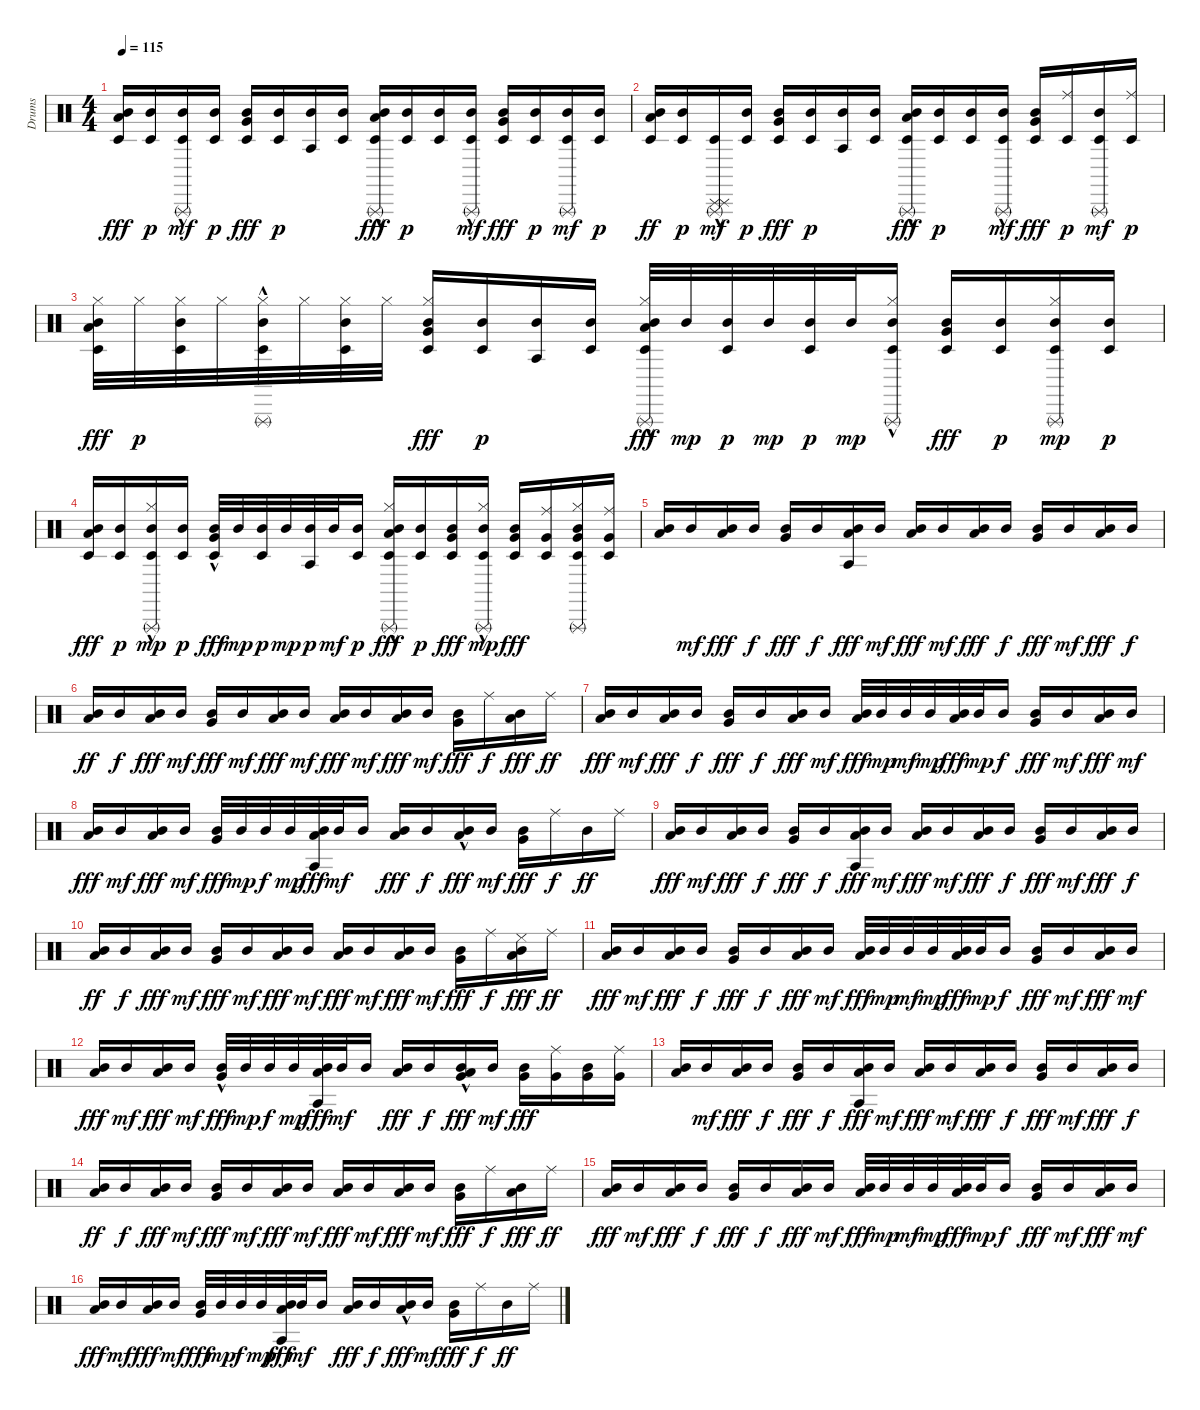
\track ("Drums" "Drums") {instrument percussion}
\staff {score}
\articulation defaults
\ts (4 4)
\tempo 115
\clef neutral
\ks c
("Mid Tom (hit)" "Timbale low (hit)" "Low Floor Tom (hit)").16{dy fff} ("Mid Tom (hit)" "Timbale low (hit)").16{dy p} ("Mid Tom (hit)" "Timbale low (hit)" "Triangle (rnute)"{hac}).16{dy mf} ("Mid Tom (hit)" "Timbale low (hit)").16{dy p} ("Mid Tom (hit)" "Timbale low (hit)" "Very Low Tom (hit)").16{dy fff} ("Mid Tom (hit)" "Timbale low (hit)").16{dy p} ("Mid Tom (hit)" "Agogo tow (hit)").16 ("Mid Tom (hit)" "Timbale low (hit)").16 ("Mid Tom (hit)" "Timbale low (hit)" "Triangle (rnute)"{hac} "Low Floor Tom (hit)").16{dy fff} ("Mid Tom (hit)" "Timbale low (hit)").16{dy p} ("Mid Tom (hit)" "Timbale low (hit)").16 ("Mid Tom (hit)" "Timbale low (hit)" "Triangle (rnute)"{hac}).16{dy mf} ("Mid Tom (hit)" "Timbale low (hit)" "Very Low Tom (hit)").16{dy fff} ("Mid Tom (hit)" "Timbale low (hit)").16{dy p} ("Mid Tom (hit)" "Timbale low (hit)" "Triangle (rnute)").16{dy mf} ("Mid Tom (hit)" "Timbale low (hit)").16{dy p} |
("Mid Tom (hit)" "Timbale low (hit)" "Low Floor Tom (hit)").16{dy ff} ("Mid Tom (hit)" "Timbale low (hit)").16{dy p} ("Piatti (hand)" "Piatti (hand)" "Timbale low (hit)" "Triangle (rnute)"{hac}).16{dy mf} ("Mid Tom (hit)" "Timbale low (hit)").16{dy p} ("Mid Tom (hit)" "Timbale low (hit)" "Very Low Tom (hit)").16{dy fff} ("Mid Tom (hit)" "Timbale low (hit)").16{dy p} ("Mid Tom (hit)" "Agogo tow (hit)").16 ("Mid Tom (hit)" "Timbale low (hit)").16 ("Mid Tom (hit)" "Timbale low (hit)" "Triangle (rnute)"{hac} "Low Floor Tom (hit)").16{dy fff} ("Mid Tom (hit)" "Timbale low (hit)").16{dy p} ("Mid Tom (hit)" "Timbale low (hit)").16 ("Mid Tom (hit)" "Timbale low (hit)" "Triangle (rnute)"{hac}).16{dy mf} ("Mid Tom (hit)" "Timbale low (hit)" "Very Low Tom (hit)").16{dy fff} ("Ride (middle)" "Timbale low (hit)").16{dy p} ("Mid Tom (hit)" "Timbale low (hit)" "Triangle (rnute)").16{dy mf} ("Ride (middle)" "Timbale low (hit)").16{dy p} |
("Mid Tom (hit)" "Timbale low (hit)" "Hi-Hat (closed)" "Low Floor Tom (hit)").32{dy fff} "Hi-Hat (closed)".32{dy p} ("Mid Tom (hit)" "Timbale low (hit)" "Hi-Hat (closed)").32 "Hi-Hat (closed)".32 ("Mid Tom (hit)" "Timbale low (hit)" "Triangle (rnute)"{hac} "Hi-Hat (closed)").32 "Hi-Hat (closed)".32 ("Mid Tom (hit)" "Timbale low (hit)" "Hi-Hat (closed)").32 "Hi-Hat (closed)".32 ("Mid Tom (hit)" "Timbale low (hit)" "Hi-Hat (closed)" "Very Low Tom (hit)").16{dy fff} ("Mid Tom (hit)" "Timbale low (hit)").16{dy p} ("Mid Tom (hit)" "Agogo tow (hit)").16 ("Mid Tom (hit)" "Timbale low (hit)").16 ("Mid Tom (hit)" "Timbale low (hit)" "Triangle (rnute)"{hac} "Hi-Hat (closed)"{hac} "Low Floor Tom (hit)").32{dy fff} "Mid Tom (hit)".32{dy mp} ("Mid Tom (hit)" "Timbale low (hit)").32{dy p} "Mid Tom (hit)".32{dy mp} ("Mid Tom (hit)" "Timbale low (hit)").32{dy p} "Mid Tom (hit)".32{dy mp} ("Mid Tom (hit)" "Timbale low (hit)" "Triangle (rnute)"{hac} "Hi-Hat (closed)"{hac}).16 ("Mid Tom (hit)" "Timbale low (hit)" "Very Low Tom (hit)").16{dy fff} ("Mid Tom (hit)" "Timbale low (hit)").16{dy p} ("Mid Tom (hit)" "Timbale low (hit)" "Triangle (rnute)" "Hi-Hat (closed)").16{dy mp} ("Mid Tom (hit)" "Timbale low (hit)").16{dy p} |
("Mid Tom (hit)" "Timbale low (hit)" "Low Floor Tom (hit)").16{dy fff} ("Mid Tom (hit)" "Timbale low (hit)").16{dy p} ("Mid Tom (hit)" "Timbale low (hit)" "Triangle (rnute)"{hac} "Hi-Hat (closed)"{hac}).16{dy mp} ("Mid Tom (hit)" "Timbale low (hit)").16{dy p} ("Mid Tom (hit)" "Timbale low (hit)" "Very Low Tom (hit)"{hac}).32{dy fff} "Mid Tom (hit)".32{dy mp} ("Mid Tom (hit)" "Timbale low (hit)").32{dy p} "Mid Tom (hit)".32{dy mp} ("Mid Tom (hit)" "Agogo tow (hit)").32{dy p} "Mid Tom (hit)".32{dy mf} ("Mid Tom (hit)" "Timbale low (hit)").16{dy p} ("Mid Tom (hit)" "Timbale low (hit)" "Triangle (rnute)"{hac} "Hi-Hat (closed)"{hac} "Low Floor Tom (hit)").16{dy fff} ("Mid Tom (hit)" "Timbale low (hit)").16{dy p} ("Mid Tom (hit)" "Timbale low (hit)" "Very Low Tom (hit)").16{dy fff} ("Mid Tom (hit)" "Timbale low (hit)" "Triangle (rnute)"{hac} "Hi-Hat (closed)"{hac}).16{dy mp} ("Mid Tom (hit)" "Timbale low (hit)" "Very Low Tom (hit)").16{dy fff} ("Ride (middle)" "Timbale low (hit)" "Very Low Tom (hit)").16 ("Mid Tom (hit)" "Timbale low (hit)" "Triangle (rnute)" "Hi-Hat (closed)" "Very Low Tom (hit)").16 ("Ride (middle)" "Timbale low (hit)" "Very Low Tom (hit)").16 |
("Mid Tom (hit)" "Low Floor Tom (hit)").16 "Mid Tom (hit)".16{dy mf} ("Mid Tom (hit)" "Low Floor Tom (hit)").16{dy fff} "Mid Tom (hit)".16{dy f} ("Mid Tom (hit)" "Very Low Tom (hit)").16{dy fff} "Mid Tom (hit)".16{dy f} ("Mid Tom (hit)" "Agogo tow (hit)" "Low Floor Tom (hit)").16{dy fff} "Mid Tom (hit)".16{dy mf} ("Mid Tom (hit)" "Low Floor Tom (hit)").16{dy fff} "Mid Tom (hit)".16{dy mf} ("Mid Tom (hit)" "Low Floor Tom (hit)").16{dy fff} "Mid Tom (hit)".16{dy f} ("Mid Tom (hit)" "Very Low Tom (hit)").16{dy fff} "Mid Tom (hit)".16{dy mf} ("Mid Tom (hit)" "Low Floor Tom (hit)").16{dy fff} "Mid Tom (hit)".16{dy f} |
("Mid Tom (hit)" "Low Floor Tom (hit)").16{dy ff} "Mid Tom (hit)".16{dy f} ("Mid Tom (hit)" "Low Floor Tom (hit)").16{dy fff} "Mid Tom (hit)".16{dy mf} ("Mid Tom (hit)" "Very Low Tom (hit)").16{dy fff} "Mid Tom (hit)".16{dy mf} ("Mid Tom (hit)" "Low Floor Tom (hit)").16{dy fff} "Mid Tom (hit)".16{dy mf} ("Mid Tom (hit)" "Low Floor Tom (hit)").16{dy fff} "Mid Tom (hit)".16{dy mf} ("Mid Tom (hit)" "Low Floor Tom (hit)").16{dy fff} "Mid Tom (hit)".16{dy mf} ("Mid Tom (hit)" "Very Low Tom (hit)").16{dy fff} "Ride (middle)".16{dy f} ("Mid Tom (hit)" "Low Floor Tom (hit)").16{dy fff} "Ride (middle)".16{dy ff} |
("Mid Tom (hit)" "Low Floor Tom (hit)").16{dy fff} "Mid Tom (hit)".16{dy mf} ("Mid Tom (hit)" "Low Floor Tom (hit)").16{dy fff} "Mid Tom (hit)".16{dy f} ("Mid Tom (hit)" "Very Low Tom (hit)").16{dy fff} "Mid Tom (hit)".16{dy f} ("Mid Tom (hit)" "Low Floor Tom (hit)").16{dy fff} "Mid Tom (hit)".16{dy mf} ("Mid Tom (hit)" "Low Floor Tom (hit)").32{dy fff} "Mid Tom (hit)".32{dy mp} "Mid Tom (hit)".32{dy mf} "Mid Tom (hit)".32{dy mp} ("Mid Tom (hit)" "Low Floor Tom (hit)").32{dy fff} "Mid Tom (hit)".32{dy mp} "Mid Tom (hit)".16{dy f} ("Mid Tom (hit)" "Very Low Tom (hit)").16{dy fff} "Mid Tom (hit)".16{dy mf} ("Mid Tom (hit)" "Low Floor Tom (hit)").16{dy fff} "Mid Tom (hit)".16{dy mf} |
("Mid Tom (hit)" "Low Floor Tom (hit)").16{dy fff} "Mid Tom (hit)".16{dy mf} ("Mid Tom (hit)" "Low Floor Tom (hit)").16{dy fff} "Mid Tom (hit)".16{dy mf} ("Mid Tom (hit)" "Very Low Tom (hit)").32{dy fff} "Mid Tom (hit)".32{dy mp} "Mid Tom (hit)".32{dy f} "Mid Tom (hit)".32{dy mp} ("Mid Tom (hit)" "Agogo tow (hit)" "Low Floor Tom (hit)").32{dy fff} "Mid Tom (hit)".32{dy mf} "Mid Tom (hit)".16 ("Mid Tom (hit)" "Low Floor Tom (hit)").16{dy fff} "Mid Tom (hit)".16{dy f} ("Mid Tom (hit)" "Low Floor Tom (hit)"{hac}).16{dy fff} "Mid Tom (hit)".16{dy mf} ("Mid Tom (hit)" "Very Low Tom (hit)").16{dy fff} "Ride (middle)".16{dy f} "Mid Tom (hit)".16{dy ff} "Ride (middle)".16 |
("Mid Tom (hit)" "Low Floor Tom (hit)").16{dy fff} "Mid Tom (hit)".16{dy mf} ("Mid Tom (hit)" "Low Floor Tom (hit)").16{dy fff} "Mid Tom (hit)".16{dy f} ("Mid Tom (hit)" "Very Low Tom (hit)").16{dy fff} "Mid Tom (hit)".16{dy f} ("Mid Tom (hit)" "Agogo tow (hit)" "Low Floor Tom (hit)").16{dy fff} "Mid Tom (hit)".16{dy mf} ("Mid Tom (hit)" "Low Floor Tom (hit)").16{dy fff} "Mid Tom (hit)".16{dy mf} ("Mid Tom (hit)" "Low Floor Tom (hit)").16{dy fff} "Mid Tom (hit)".16{dy f} ("Mid Tom (hit)" "Very Low Tom (hit)").16{dy fff} "Mid Tom (hit)".16{dy mf} ("Mid Tom (hit)" "Low Floor Tom (hit)").16{dy fff} "Mid Tom (hit)".16{dy f} |
("Mid Tom (hit)" "Low Floor Tom (hit)").16{dy ff} "Mid Tom (hit)".16{dy f} ("Mid Tom (hit)" "Low Floor Tom (hit)").16{dy fff} "Mid Tom (hit)".16{dy mf} ("Mid Tom (hit)" "Very Low Tom (hit)").16{dy fff} "Mid Tom (hit)".16{dy mf} ("Mid Tom (hit)" "Low Floor Tom (hit)").16{dy fff} "Mid Tom (hit)".16{dy mf} ("Mid Tom (hit)" "Low Floor Tom (hit)").16{dy fff} "Mid Tom (hit)".16{dy mf} ("Mid Tom (hit)" "Low Floor Tom (hit)").16{dy fff} "Mid Tom (hit)".16{dy mf} ("Mid Tom (hit)" "Very Low Tom (hit)").16{dy fff} "Ride (middle)".16{dy f} ("Mid Tom (hit)" "Cowbell low (tip)" "Low Floor Tom (hit)").16{dy fff} "Ride (middle)".16{dy ff} |
("Mid Tom (hit)" "Low Floor Tom (hit)").16{dy fff} "Mid Tom (hit)".16{dy mf} ("Mid Tom (hit)" "Low Floor Tom (hit)").16{dy fff} "Mid Tom (hit)".16{dy f} ("Mid Tom (hit)" "Very Low Tom (hit)").16{dy fff} "Mid Tom (hit)".16{dy f} ("Mid Tom (hit)" "Low Floor Tom (hit)").16{dy fff} "Mid Tom (hit)".16{dy mf} ("Mid Tom (hit)" "Low Floor Tom (hit)").32{dy fff} "Mid Tom (hit)".32{dy mp} "Mid Tom (hit)".32{dy mf} "Mid Tom (hit)".32{dy mp} ("Mid Tom (hit)" "Low Floor Tom (hit)").32{dy fff} "Mid Tom (hit)".32{dy mp} "Mid Tom (hit)".16{dy f} ("Mid Tom (hit)" "Very Low Tom (hit)").16{dy fff} "Mid Tom (hit)".16{dy mf} ("Mid Tom (hit)" "Low Floor Tom (hit)").16{dy fff} "Mid Tom (hit)".16{dy mf} |
("Mid Tom (hit)" "Low Floor Tom (hit)").16{dy fff} "Mid Tom (hit)".16{dy mf} ("Mid Tom (hit)" "Low Floor Tom (hit)").16{dy fff} "Mid Tom (hit)".16{dy mf} ("Mid Tom (hit)" "Very Low Tom (hit)"{hac}).32{dy fff} "Mid Tom (hit)".32{dy mp} "Mid Tom (hit)".32{dy f} "Mid Tom (hit)".32{dy mp} ("Mid Tom (hit)" "Agogo tow (hit)" "Low Floor Tom (hit)").32{dy fff} "Mid Tom (hit)".32{dy mf} "Mid Tom (hit)".16 ("Mid Tom (hit)" "Low Floor Tom (hit)").16{dy fff} "Mid Tom (hit)".16{dy f} ("Mid Tom (hit)" "Very Low Tom (hit)" "Low Floor Tom (hit)"{hac}).16{dy fff} "Mid Tom (hit)".16{dy mf} ("Mid Tom (hit)" "Very Low Tom (hit)").16{dy fff} ("Ride (middle)" "Very Low Tom (hit)").16 ("Mid Tom (hit)" "Very Low Tom (hit)").16 ("Ride (middle)" "Very Low Tom (hit)").16 |
("Mid Tom (hit)" "Low Floor Tom (hit)").16 "Mid Tom (hit)".16{dy mf} ("Mid Tom (hit)" "Low Floor Tom (hit)").16{dy fff} "Mid Tom (hit)".16{dy f} ("Mid Tom (hit)" "Very Low Tom (hit)").16{dy fff} "Mid Tom (hit)".16{dy f} ("Mid Tom (hit)" "Agogo tow (hit)" "Low Floor Tom (hit)").16{dy fff} "Mid Tom (hit)".16{dy mf} ("Mid Tom (hit)" "Low Floor Tom (hit)").16{dy fff} "Mid Tom (hit)".16{dy mf} ("Mid Tom (hit)" "Low Floor Tom (hit)").16{dy fff} "Mid Tom (hit)".16{dy f} ("Mid Tom (hit)" "Very Low Tom (hit)").16{dy fff} "Mid Tom (hit)".16{dy mf} ("Mid Tom (hit)" "Low Floor Tom (hit)").16{dy fff} "Mid Tom (hit)".16{dy f} |
("Mid Tom (hit)" "Low Floor Tom (hit)").16{dy ff} "Mid Tom (hit)".16{dy f} ("Mid Tom (hit)" "Low Floor Tom (hit)").16{dy fff} "Mid Tom (hit)".16{dy mf} ("Mid Tom (hit)" "Very Low Tom (hit)").16{dy fff} "Mid Tom (hit)".16{dy mf} ("Mid Tom (hit)" "Low Floor Tom (hit)").16{dy fff} "Mid Tom (hit)".16{dy mf} ("Mid Tom (hit)" "Low Floor Tom (hit)").16{dy fff} "Mid Tom (hit)".16{dy mf} ("Mid Tom (hit)" "Low Floor Tom (hit)").16{dy fff} "Mid Tom (hit)".16{dy mf} ("Mid Tom (hit)" "Very Low Tom (hit)").16{dy fff} "Ride (middle)".16{dy f} ("Mid Tom (hit)" "Low Floor Tom (hit)").16{dy fff} "Ride (middle)".16{dy ff} |
("Mid Tom (hit)" "Low Floor Tom (hit)").16{dy fff} "Mid Tom (hit)".16{dy mf} ("Mid Tom (hit)" "Low Floor Tom (hit)").16{dy fff} "Mid Tom (hit)".16{dy f} ("Mid Tom (hit)" "Very Low Tom (hit)").16{dy fff} "Mid Tom (hit)".16{dy f} ("Mid Tom (hit)" "Low Floor Tom (hit)").16{dy fff} "Mid Tom (hit)".16{dy mf} ("Mid Tom (hit)" "Low Floor Tom (hit)").32{dy fff} "Mid Tom (hit)".32{dy mp} "Mid Tom (hit)".32{dy mf} "Mid Tom (hit)".32{dy mp} ("Mid Tom (hit)" "Low Floor Tom (hit)").32{dy fff} "Mid Tom (hit)".32{dy mp} "Mid Tom (hit)".16{dy f} ("Mid Tom (hit)" "Very Low Tom (hit)").16{dy fff} "Mid Tom (hit)".16{dy mf} ("Mid Tom (hit)" "Low Floor Tom (hit)").16{dy fff} "Mid Tom (hit)".16{dy mf} |
("Mid Tom (hit)" "Low Floor Tom (hit)").16{dy fff} "Mid Tom (hit)".16{dy mf} ("Mid Tom (hit)" "Low Floor Tom (hit)").16{dy fff} "Mid Tom (hit)".16{dy mf} ("Mid Tom (hit)" "Very Low Tom (hit)").32{dy fff} "Mid Tom (hit)".32{dy mp} "Mid Tom (hit)".32{dy f} "Mid Tom (hit)".32{dy mp} ("Mid Tom (hit)" "Agogo tow (hit)" "Low Floor Tom (hit)").32{dy fff} "Mid Tom (hit)".32{dy mf} "Mid Tom (hit)".16 ("Mid Tom (hit)" "Low Floor Tom (hit)").16{dy fff} "Mid Tom (hit)".16{dy f} ("Mid Tom (hit)" "Low Floor Tom (hit)"{hac}).16{dy fff} "Mid Tom (hit)".16{dy mf} ("Mid Tom (hit)" "Very Low Tom (hit)").16{dy fff} "Ride (middle)".16{dy f} "Mid Tom (hit)".16{dy ff} "Ride (middle)".16
